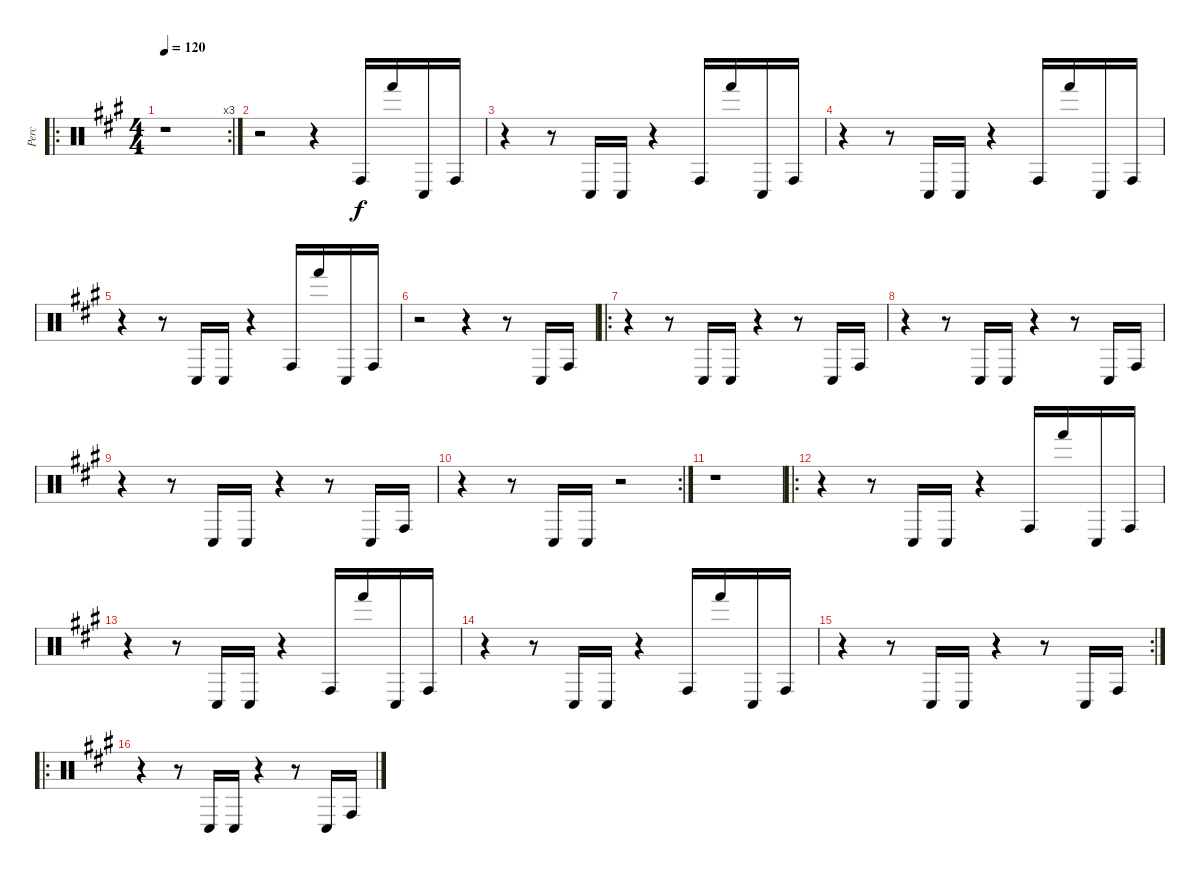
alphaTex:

\track ("Perc" "Perc") {instrument percussion}
\staff {score}
\articulation defaults
\ro
\rc 3
\ts (4 4)
\tempo 120
\clef neutral
\ks a
r.1{dy f} |
r.2 r.4 "Conga high (hit)".16 "Hand (hit)".16 "Conga low (hit)".16 "Conga high (hit)".16 |
r.4 r.8 "Conga low (hit)".16 "Conga low (hit)".16 r.4 "Conga high (hit)".16 "Hand (hit)".16 "Conga low (hit)".16 "Conga high (hit)".16 |
r.4 r.8 "Conga low (hit)".16 "Conga low (hit)".16 r.4 "Conga high (hit)".16 "Hand (hit)".16 "Conga low (hit)".16 "Conga high (hit)".16 |
r.4 r.8 "Conga low (hit)".16 "Conga low (hit)".16 r.4 "Conga high (hit)".16 "Hand (hit)".16 "Conga low (hit)".16 "Conga high (hit)".16 |
r.2 r.4 r.8 "Conga low (hit)".16 "Conga high (hit)".16 |
\ro
r.4 r.8 "Conga low (hit)".16 "Conga low (hit)".16 r.4 r.8 "Conga low (hit)".16 "Conga high (hit)".16 |
r.4 r.8 "Conga low (hit)".16 "Conga low (hit)".16 r.4 r.8 "Conga low (hit)".16 "Conga high (hit)".16 |
r.4 r.8 "Conga low (hit)".16 "Conga low (hit)".16 r.4 r.8 "Conga low (hit)".16 "Conga high (hit)".16 |
\rc 2
r.4 r.8 "Conga low (hit)".16 "Conga low (hit)".16 r.2 |
r.1 |
\ro
r.4 r.8 "Conga low (hit)".16 "Conga low (hit)".16 r.4 "Conga high (hit)".16 "Hand (hit)".16 "Conga low (hit)".16 "Conga high (hit)".16 |
r.4 r.8 "Conga low (hit)".16 "Conga low (hit)".16 r.4 "Conga high (hit)".16 "Hand (hit)".16 "Conga low (hit)".16 "Conga high (hit)".16 |
r.4 r.8 "Conga low (hit)".16 "Conga low (hit)".16 r.4 "Conga high (hit)".16 "Hand (hit)".16 "Conga low (hit)".16 "Conga high (hit)".16 |
\rc 2
r.4 r.8 "Conga low (hit)".16 "Conga low (hit)".16 r.4 r.8 "Conga low (hit)".16 "Conga high (hit)".16 |
\ro
r.4 r.8 "Conga low (hit)".16 "Conga low (hit)".16 r.4 r.8 "Conga low (hit)".16 "Conga high (hit)".16
